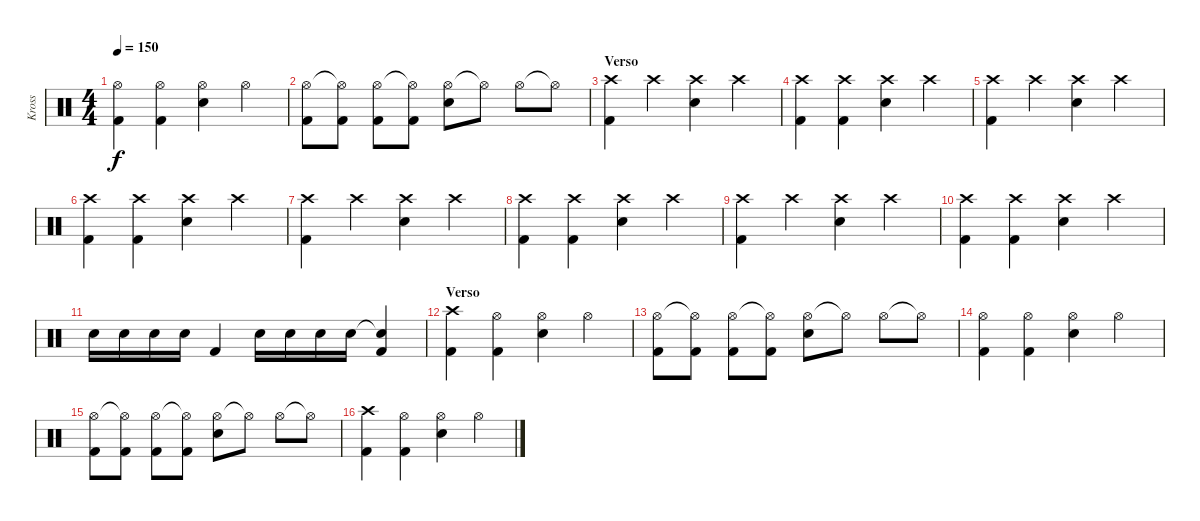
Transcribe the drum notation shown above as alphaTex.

\track ("Kross" "Kross") {instrument percussion}
\staff {score}
\articulation defaults
\ts (4 4)
\tempo 150
\clef neutral
\ks c
("Hi-Hat (open)" "Kick (hit) 2").4{dy f} ("Hi-Hat (open)" "Kick (hit) 2").4 ("Hi-Hat (open)" "Snare (hit) 2").4 "Hi-Hat (open)".4 |
("Hi-Hat (open)" "Kick (hit) 2").8 ("Hi-Hat (open)"{t} "Kick (hit) 2").8 ("Hi-Hat (open)" "Kick (hit) 2").8 ("Hi-Hat (open)"{t} "Kick (hit) 2").8 ("Hi-Hat (open)" "Snare (hit) 2").8 "Hi-Hat (open)"{t}.8 "Hi-Hat (open)".8 "Hi-Hat (open)"{t}.8 |
\section ("" "Verso")
("Crash high (hit)" "Kick (hit) 2").4 "Crash high (hit)".4 ("Crash high (hit)" "Snare (hit) 2").4 "Crash high (hit)".4 |
("Crash high (hit)" "Kick (hit) 2").4 ("Crash high (hit)" "Kick (hit) 2").4 ("Crash high (hit)" "Snare (hit) 2").4 "Crash high (hit)".4 |
("Crash high (hit)" "Kick (hit) 2").4 "Crash high (hit)".4 ("Crash high (hit)" "Snare (hit) 2").4 "Crash high (hit)".4 |
("Crash high (hit)" "Kick (hit) 2").4 ("Crash high (hit)" "Kick (hit) 2").4 ("Crash high (hit)" "Snare (hit) 2").4 "Crash high (hit)".4 |
("Crash high (hit)" "Kick (hit) 2").4 "Crash high (hit)".4 ("Crash high (hit)" "Snare (hit) 2").4 "Crash high (hit)".4 |
("Crash high (hit)" "Kick (hit) 2").4 ("Crash high (hit)" "Kick (hit) 2").4 ("Crash high (hit)" "Snare (hit) 2").4 "Crash high (hit)".4 |
("Crash high (hit)" "Kick (hit) 2").4 "Crash high (hit)".4 ("Crash high (hit)" "Snare (hit) 2").4 "Crash high (hit)".4 |
("Crash high (hit)" "Kick (hit) 2").4 ("Crash high (hit)" "Kick (hit) 2").4 ("Crash high (hit)" "Snare (hit) 2").4 "Crash high (hit)".4 |
"Snare (hit) 2".16 "Snare (hit) 2".16 "Snare (hit) 2".16 "Snare (hit) 2".16 "Kick (hit) 2".4 "Snare (hit) 2".16 "Snare (hit) 2".16 "Snare (hit) 2".16 "Snare (hit) 2".16 ("Snare (hit)"{t} "Kick (hit) 2").4 |
\section ("" "Verso")
("Crash high (hit)" "Kick (hit) 2").4 ("Hi-Hat (open)" "Kick (hit) 2").4 ("Hi-Hat (open)" "Snare (hit) 2").4 "Hi-Hat (open)".4 |
("Hi-Hat (open)" "Kick (hit) 2").8 ("Hi-Hat (open)"{t} "Kick (hit) 2").8 ("Hi-Hat (open)" "Kick (hit) 2").8 ("Hi-Hat (open)"{t} "Kick (hit) 2").8 ("Hi-Hat (open)" "Snare (hit) 2").8 "Hi-Hat (open)"{t}.8 "Hi-Hat (open)".8 "Hi-Hat (open)"{t}.8 |
("Hi-Hat (open)" "Kick (hit) 2").4 ("Hi-Hat (open)" "Kick (hit) 2").4 ("Hi-Hat (open)" "Snare (hit) 2").4 "Hi-Hat (open)".4 |
("Hi-Hat (open)" "Kick (hit) 2").8 ("Hi-Hat (open)"{t} "Kick (hit) 2").8 ("Hi-Hat (open)" "Kick (hit) 2").8 ("Hi-Hat (open)"{t} "Kick (hit) 2").8 ("Hi-Hat (open)" "Snare (hit) 2").8 "Hi-Hat (open)"{t}.8 "Hi-Hat (open)".8 "Hi-Hat (open)"{t}.8 |
("Crash high (hit)" "Kick (hit) 2").4 ("Hi-Hat (open)" "Kick (hit) 2").4 ("Hi-Hat (open)" "Snare (hit) 2").4 "Hi-Hat (open)".4
